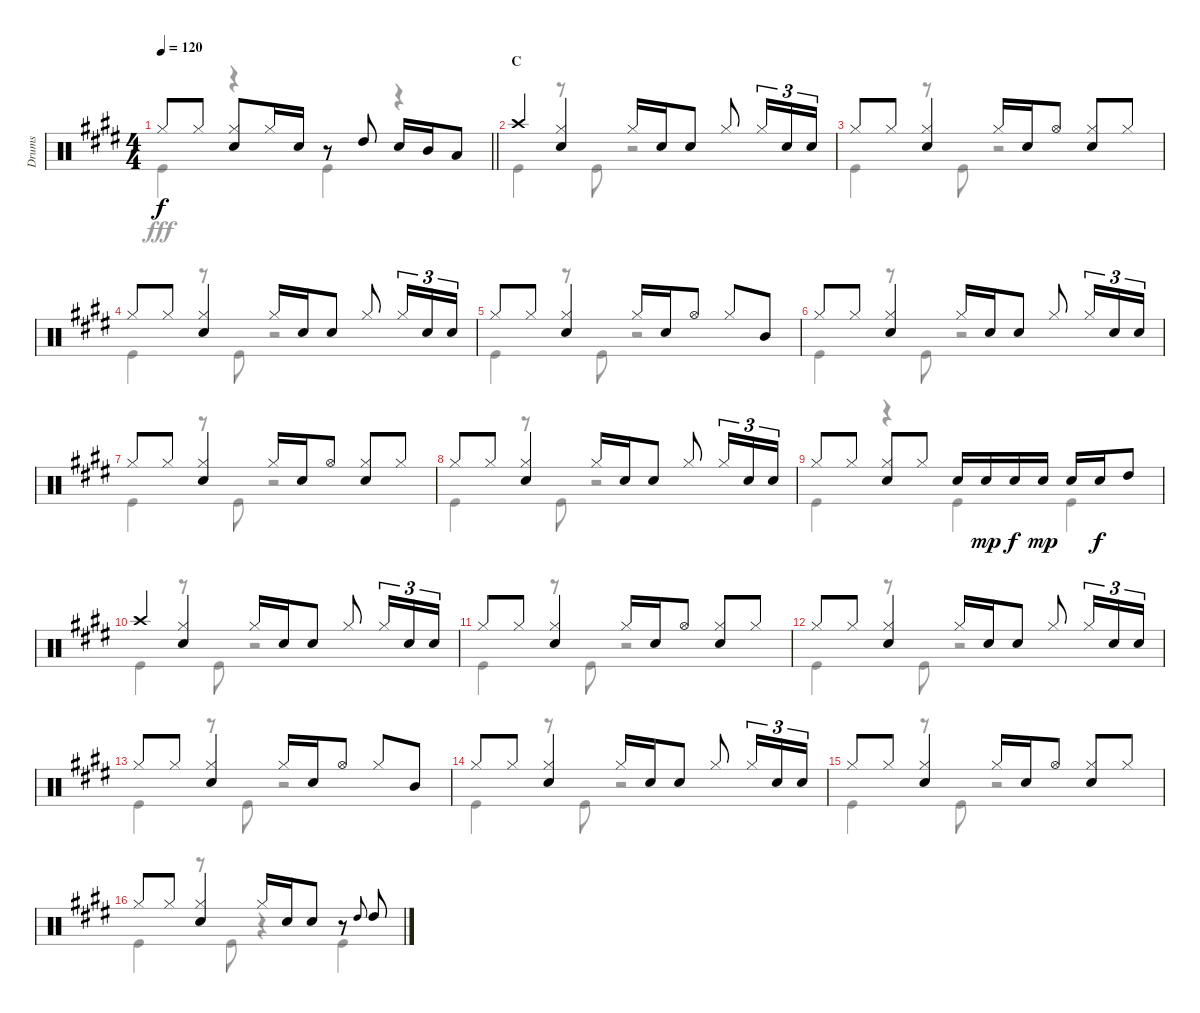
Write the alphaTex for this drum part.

\track ("Drums" "Drums") {instrument percussion}
\staff {score}
\articulation defaults
\voice
\ts (4 4)
\tempo 120
\clef neutral
\barLineRight lightlight
\ks e "Hi-Hat (closed)".8{dy f} "Hi-Hat (closed)".8
("Hi-Hat (closed)" "Snare (hit) 2").8 "Hi-Hat (closed)".16 "Snare (hit) 2".16 r.8 "High Tom (hit)".8 "Snare (hit) 2".16 "Mid Tom (hit)".16 "Low Tom (hit)".8 |
\section ("" "C")
"Crash high (hit)".4 ("Hi-Hat (closed)" "Snare (hit) 2").4 "Hi-Hat (closed)".16 "Snare (hit) 2".16 "Snare (hit) 2".8 "Hi-Hat (closed)".8 "Hi-Hat (closed)".16{tu (3 2)} "Snare (hit) 2".16{tu (3 2)} "Snare (hit) 2".16{tu (3 2)} |
"Hi-Hat (closed)".8 "Hi-Hat (closed)".8 ("Hi-Hat (closed)" "Snare (hit) 2").4 "Hi-Hat (closed)".16 "Snare (hit) 2".16 "Hi-Hat (open)".8 ("Hi-Hat (closed)" "Snare (hit) 2").8 "Hi-Hat (closed)".8 |
"Hi-Hat (closed)".8 "Hi-Hat (closed)".8 ("Hi-Hat (closed)" "Snare (hit) 2").4 "Hi-Hat (closed)".16 "Snare (hit) 2".16 "Snare (hit) 2".8 "Hi-Hat (closed)".8 "Hi-Hat (closed)".16{tu (3 2)} "Snare (hit) 2".16{tu (3 2)} "Snare (hit) 2".16{tu (3 2)} |
"Hi-Hat (closed)".8 "Hi-Hat (closed)".8 ("Hi-Hat (closed)" "Snare (hit) 2").4 "Hi-Hat (closed)".16 "Snare (hit) 2".16 "Hi-Hat (open)".8 "Hi-Hat (closed)".8 "Mid Tom (hit)".8 |
"Hi-Hat (closed)".8 "Hi-Hat (closed)".8 ("Hi-Hat (closed)" "Snare (hit) 2").4 "Hi-Hat (closed)".16 "Snare (hit) 2".16 "Snare (hit) 2".8 "Hi-Hat (closed)".8 "Hi-Hat (closed)".16{tu (3 2)} "Snare (hit) 2".16{tu (3 2)} "Snare (hit) 2".16{tu (3 2)} |
"Hi-Hat (closed)".8 "Hi-Hat (closed)".8 ("Hi-Hat (closed)" "Snare (hit) 2").4 "Hi-Hat (closed)".16 "Snare (hit) 2".16 "Hi-Hat (open)".8 ("Hi-Hat (closed)" "Snare (hit) 2").8 "Hi-Hat (closed)".8 |
"Hi-Hat (closed)".8 "Hi-Hat (closed)".8 ("Hi-Hat (closed)" "Snare (hit) 2").4 "Hi-Hat (closed)".16 "Snare (hit) 2".16 "Snare (hit) 2".8 "Hi-Hat (closed)".8 "Hi-Hat (closed)".16{tu (3 2)} "Snare (hit) 2".16{tu (3 2)} "Snare (hit) 2".16{tu (3 2)} |
"Hi-Hat (closed)".8 "Hi-Hat (closed)".8 ("Hi-Hat (closed)" "Snare (hit) 2").8 "Hi-Hat (closed)".8 "Snare (hit) 2".16 "Snare (hit) 2".16{dy mp} "Snare (hit) 2".16{dy f} "Snare (hit) 2".16{dy mp} "Snare (hit) 2".16 "Snare (hit) 2".16{dy f} "High Tom (hit)".8 |
"Crash high (hit)".4 ("Hi-Hat (closed)" "Snare (hit) 2").4 "Hi-Hat (closed)".16 "Snare (hit) 2".16 "Snare (hit) 2".8 "Hi-Hat (closed)".8 "Hi-Hat (closed)".16{tu (3 2)} "Snare (hit) 2".16{tu (3 2)} "Snare (hit) 2".16{tu (3 2)} |
"Hi-Hat (closed)".8 "Hi-Hat (closed)".8 ("Hi-Hat (closed)" "Snare (hit) 2").4 "Hi-Hat (closed)".16 "Snare (hit) 2".16 "Hi-Hat (open)".8 ("Hi-Hat (closed)" "Snare (hit) 2").8 "Hi-Hat (closed)".8 |
"Hi-Hat (closed)".8 "Hi-Hat (closed)".8 ("Hi-Hat (closed)" "Snare (hit) 2").4 "Hi-Hat (closed)".16 "Snare (hit) 2".16 "Snare (hit) 2".8 "Hi-Hat (closed)".8 "Hi-Hat (closed)".16{tu (3 2)} "Snare (hit) 2".16{tu (3 2)} "Snare (hit) 2".16{tu (3 2)} |
"Hi-Hat (closed)".8 "Hi-Hat (closed)".8 ("Hi-Hat (closed)" "Snare (hit) 2").4 "Hi-Hat (closed)".16 "Snare (hit) 2".16 "Hi-Hat (open)".8 "Hi-Hat (closed)".8 "Mid Tom (hit)".8 |
"Hi-Hat (closed)".8 "Hi-Hat (closed)".8 ("Hi-Hat (closed)" "Snare (hit) 2").4 "Hi-Hat (closed)".16 "Snare (hit) 2".16 "Snare (hit) 2".8 "Hi-Hat (closed)".8 "Hi-Hat (closed)".16{tu (3 2)} "Snare (hit) 2".16{tu (3 2)} "Snare (hit) 2".16{tu (3 2)} |
"Hi-Hat (closed)".8 "Hi-Hat (closed)".8 ("Hi-Hat (closed)" "Snare (hit) 2").4 "Hi-Hat (closed)".16 "Snare (hit) 2".16 "Hi-Hat (open)".8 ("Hi-Hat (closed)" "Snare (hit) 2").8 "Hi-Hat (closed)".8 |
"Hi-Hat (closed)".8 "Hi-Hat (closed)".8 ("Hi-Hat (closed)" "Snare (hit) 2").4 "Hi-Hat (closed)".16 "Snare (hit) 2".16 "Snare (hit) 2".8 r.8 "High Tom (hit)".8{gr onbeat} "High Tom (hit)".8
\voice
\clef neutral
\ottava regular
\simile none
\barLineRight lightlight
\ks e "Kick (hit)".4{dy fff}
r.4 "Kick (hit)".4 r.4 |
"Kick (hit)".4 r.8 "Kick (hit)".8 r.2 |
"Kick (hit)".4 r.8 "Kick (hit)".8 r.2 |
"Kick (hit)".4 r.8 "Kick (hit)".8 r.2 |
"Kick (hit)".4 r.8 "Kick (hit)".8 r.2 |
"Kick (hit)".4 r.8 "Kick (hit)".8 r.2 |
"Kick (hit)".4 r.8 "Kick (hit)".8 r.2 |
"Kick (hit)".4 r.8 "Kick (hit)".8 r.2 |
"Kick (hit)".4 r.4 "Kick (hit)".4 "Kick (hit)".4 |
"Kick (hit)".4 r.8 "Kick (hit)".8 r.2 |
"Kick (hit)".4 r.8 "Kick (hit)".8 r.2 |
"Kick (hit)".4 r.8 "Kick (hit)".8 r.2 |
"Kick (hit)".4 r.8 "Kick (hit)".8 r.2 |
"Kick (hit)".4 r.8 "Kick (hit)".8 r.2 |
"Kick (hit)".4 r.8 "Kick (hit)".8 r.2 |
"Kick (hit)".4 r.8 "Kick (hit)".8 r.4 "Kick (hit)".4
